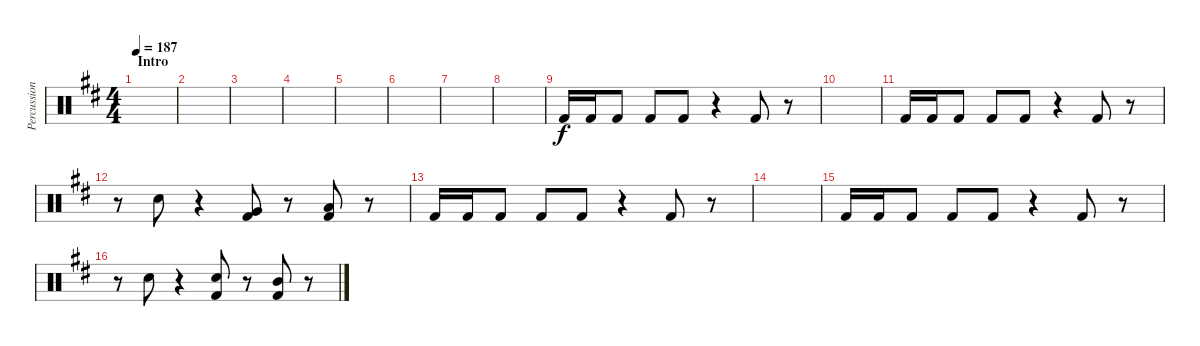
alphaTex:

\track ("Percussion" "Percussion") {instrument percussion}
\staff {score}
\articulation defaults
\ts (4 4)
\section ("" "Intro")
\tempo 187
\clef neutral
\ks d
|
|
|
|
|
|
|
|
"Kick (hit) 2".16 "Kick (hit) 2".16 "Kick (hit) 2".8 "Kick (hit) 2".8 "Kick (hit) 2".8 r.4 "Kick (hit) 2".8 r.8 |
|
"Kick (hit) 2".16 "Kick (hit) 2".16 "Kick (hit) 2".8 "Kick (hit) 2".8 "Kick (hit) 2".8 r.4 "Kick (hit) 2".8 r.8 |
r.8 "Snare (hit) 2".8 r.4 ("Very Low Tom (hit)" "Kick (hit) 2").8 r.8 ("Low Floor Tom (hit)" "Kick (hit) 2").8 r.8 |
"Kick (hit) 2".16 "Kick (hit) 2".16 "Kick (hit) 2".8 "Kick (hit) 2".8 "Kick (hit) 2".8 r.4 "Kick (hit) 2".8 r.8 |
|
"Kick (hit) 2".16 "Kick (hit) 2".16 "Kick (hit) 2".8 "Kick (hit) 2".8 "Kick (hit) 2".8 r.4 "Kick (hit) 2".8 r.8 |
r.8 "Snare (hit) 2".8 r.4 ("Snare (hit) 2" "Kick (hit) 2").8 r.8 ("Mid Tom (hit)" "Kick (hit) 2").8 r.8
